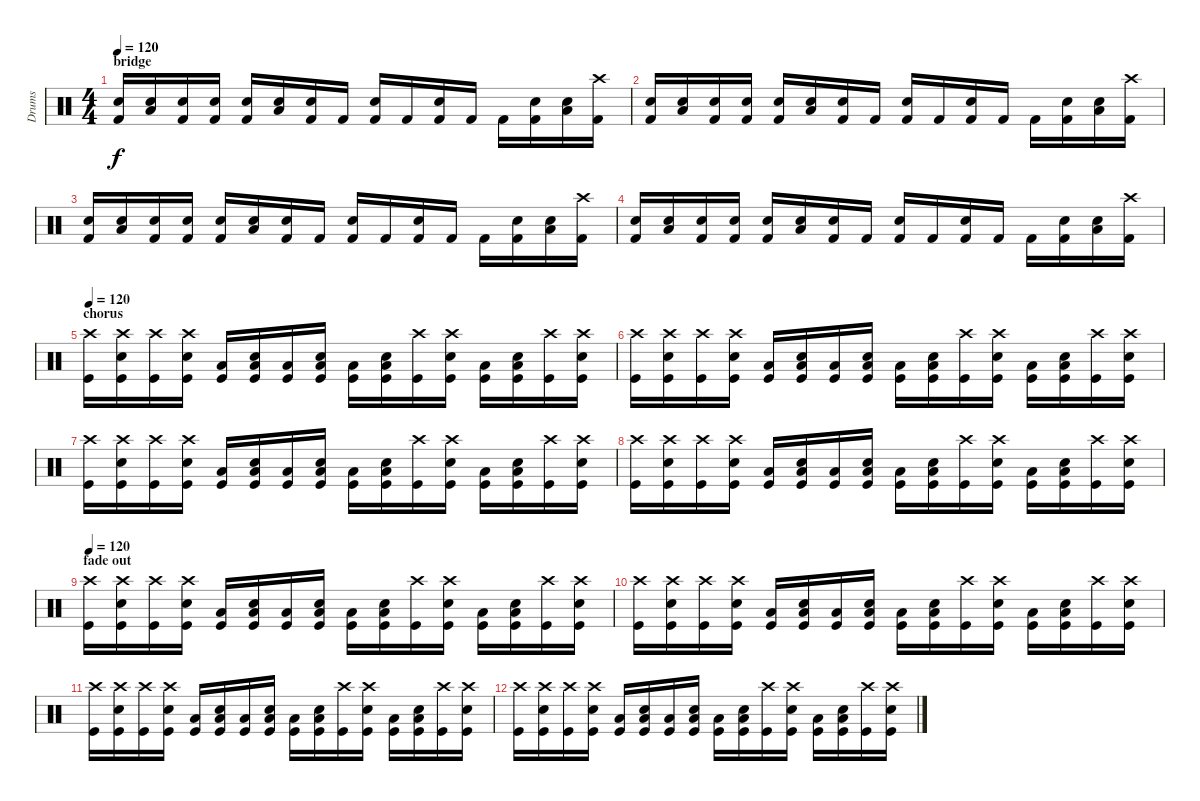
\track ("Drums" "Drums") {instrument percussion}
\staff {score}
\articulation defaults
\ts (4 4)
\section ("" "bridge")
\tempo 120
\clef neutral
\ks c
("Snare (hit) 2" "Kick (hit) 2").16{dy f} ("Snare (hit) 2" "Low Tom (hit)").16 ("Snare (hit) 2" "Kick (hit) 2").16 ("Snare (hit) 2" "Kick (hit) 2").16 ("Snare (hit) 2" "Kick (hit) 2").16 ("Snare (hit) 2" "Low Tom (hit)").16 ("Snare (hit) 2" "Kick (hit) 2").16 "Kick (hit) 2".16 ("Kick (hit) 2" "Snare (hit) 2").16 "Kick (hit) 2".16 ("Kick (hit) 2" "Snare (hit) 2").16 "Kick (hit) 2".16 "Kick (hit) 2".16 ("Kick (hit) 2" "Snare (hit) 2").16 ("Snare (hit) 2" "Low Tom (hit)").16 ("Kick (hit) 2" "Crash high (hit)").16 |
("Snare (hit) 2" "Kick (hit) 2").16 ("Snare (hit) 2" "Low Tom (hit)").16 ("Snare (hit) 2" "Kick (hit) 2").16 ("Snare (hit) 2" "Kick (hit) 2").16 ("Snare (hit) 2" "Kick (hit) 2").16 ("Snare (hit) 2" "Low Tom (hit)").16 ("Snare (hit) 2" "Kick (hit) 2").16 "Kick (hit) 2".16 ("Kick (hit) 2" "Snare (hit) 2").16 "Kick (hit) 2".16 ("Kick (hit) 2" "Snare (hit) 2").16 "Kick (hit) 2".16 "Kick (hit) 2".16 ("Kick (hit) 2" "Snare (hit) 2").16 ("Snare (hit) 2" "Low Tom (hit)").16 ("Kick (hit) 2" "Crash high (hit)").16 |
("Snare (hit) 2" "Kick (hit) 2").16 ("Snare (hit) 2" "Low Tom (hit)").16 ("Snare (hit) 2" "Kick (hit) 2").16 ("Snare (hit) 2" "Kick (hit) 2").16 ("Snare (hit) 2" "Kick (hit) 2").16 ("Snare (hit) 2" "Low Tom (hit)").16 ("Snare (hit) 2" "Kick (hit) 2").16 "Kick (hit) 2".16 ("Kick (hit) 2" "Snare (hit) 2").16 "Kick (hit) 2".16 ("Kick (hit) 2" "Snare (hit) 2").16 "Kick (hit) 2".16 "Kick (hit) 2".16 ("Kick (hit) 2" "Snare (hit) 2").16 ("Snare (hit) 2" "Low Tom (hit)").16 ("Kick (hit) 2" "Crash high (hit)").16 |
("Snare (hit) 2" "Kick (hit) 2").16 ("Snare (hit) 2" "Low Tom (hit)").16 ("Snare (hit) 2" "Kick (hit) 2").16 ("Snare (hit) 2" "Kick (hit) 2").16 ("Snare (hit) 2" "Kick (hit) 2").16 ("Snare (hit) 2" "Low Tom (hit)").16 ("Snare (hit) 2" "Kick (hit) 2").16 "Kick (hit) 2".16 ("Kick (hit) 2" "Snare (hit) 2").16 "Kick (hit) 2".16 ("Kick (hit) 2" "Snare (hit) 2").16 "Kick (hit) 2".16 "Kick (hit) 2".16 ("Kick (hit) 2" "Snare (hit) 2").16 ("Snare (hit) 2" "Low Tom (hit)").16 ("Kick (hit) 2" "Crash high (hit)").16 |
\section ("" "chorus")
\tempo 120
("Kick (hit)" "Crash high (hit)").16 ("Kick (hit)" "Snare (hit) 2" "Crash high (hit)").16 ("Kick (hit)" "Crash high (hit)").16 ("Kick (hit)" "Snare (hit) 2" "Crash high (hit)").16 ("Kick (hit)" "Low Tom (hit)").16 ("Kick (hit)" "Snare (hit) 2" "Low Tom (hit)").16 ("Kick (hit)" "Low Tom (hit)").16 ("Kick (hit)" "Snare (hit) 2" "Low Tom (hit)").16 ("Kick (hit)" "Low Tom (hit)").16 ("Kick (hit)" "Snare (hit) 2" "Low Tom (hit)").16 ("Kick (hit)" "Crash high (hit)").16 ("Kick (hit)" "Snare (hit) 2" "Crash high (hit)").16 ("Kick (hit)" "Low Tom (hit)").16 ("Kick (hit)" "Snare (hit) 2" "Low Tom (hit)").16 ("Kick (hit)" "Crash high (hit)").16 ("Kick (hit)" "Snare (hit) 2" "Crash high (hit)").16 |
("Kick (hit)" "Crash high (hit)").16 ("Kick (hit)" "Snare (hit) 2" "Crash high (hit)").16 ("Kick (hit)" "Crash high (hit)").16 ("Kick (hit)" "Snare (hit) 2" "Crash high (hit)").16 ("Kick (hit)" "Low Tom (hit)").16 ("Kick (hit)" "Snare (hit) 2" "Low Tom (hit)").16 ("Kick (hit)" "Low Tom (hit)").16 ("Kick (hit)" "Snare (hit) 2" "Low Tom (hit)").16 ("Kick (hit)" "Low Tom (hit)").16 ("Kick (hit)" "Snare (hit) 2" "Low Tom (hit)").16 ("Kick (hit)" "Crash high (hit)").16 ("Kick (hit)" "Snare (hit) 2" "Crash high (hit)").16 ("Kick (hit)" "Low Tom (hit)").16 ("Kick (hit)" "Snare (hit) 2" "Low Tom (hit)").16 ("Kick (hit)" "Crash high (hit)").16 ("Kick (hit)" "Snare (hit) 2" "Crash high (hit)").16 |
("Kick (hit)" "Crash high (hit)").16 ("Kick (hit)" "Snare (hit) 2" "Crash high (hit)").16 ("Kick (hit)" "Crash high (hit)").16 ("Kick (hit)" "Snare (hit) 2" "Crash high (hit)").16 ("Kick (hit)" "Low Tom (hit)").16 ("Kick (hit)" "Snare (hit) 2" "Low Tom (hit)").16 ("Kick (hit)" "Low Tom (hit)").16 ("Kick (hit)" "Snare (hit) 2" "Low Tom (hit)").16 ("Kick (hit)" "Low Tom (hit)").16 ("Kick (hit)" "Snare (hit) 2" "Low Tom (hit)").16 ("Kick (hit)" "Crash high (hit)").16 ("Kick (hit)" "Snare (hit) 2" "Crash high (hit)").16 ("Kick (hit)" "Low Tom (hit)").16 ("Kick (hit)" "Snare (hit) 2" "Low Tom (hit)").16 ("Kick (hit)" "Crash high (hit)").16 ("Kick (hit)" "Snare (hit) 2" "Crash high (hit)").16 |
("Kick (hit)" "Crash high (hit)").16 ("Kick (hit)" "Snare (hit) 2" "Crash high (hit)").16 ("Kick (hit)" "Crash high (hit)").16 ("Kick (hit)" "Snare (hit) 2" "Crash high (hit)").16 ("Kick (hit)" "Low Tom (hit)").16 ("Kick (hit)" "Snare (hit) 2" "Low Tom (hit)").16 ("Kick (hit)" "Low Tom (hit)").16 ("Kick (hit)" "Snare (hit) 2" "Low Tom (hit)").16 ("Kick (hit)" "Low Tom (hit)").16 ("Kick (hit)" "Snare (hit) 2" "Low Tom (hit)").16 ("Kick (hit)" "Crash high (hit)").16 ("Kick (hit)" "Snare (hit) 2" "Crash high (hit)").16 ("Kick (hit)" "Low Tom (hit)").16 ("Kick (hit)" "Snare (hit) 2" "Low Tom (hit)").16 ("Kick (hit)" "Crash high (hit)").16 ("Kick (hit)" "Snare (hit) 2" "Crash high (hit)").16 |
\section ("" "fade out")
\tempo 120
("Kick (hit)" "Crash high (hit)").16 ("Kick (hit)" "Snare (hit) 2" "Crash high (hit)").16 ("Kick (hit)" "Crash high (hit)").16 ("Kick (hit)" "Snare (hit) 2" "Crash high (hit)").16 ("Kick (hit)" "Low Tom (hit)").16 ("Kick (hit)" "Snare (hit) 2" "Low Tom (hit)").16 ("Kick (hit)" "Low Tom (hit)").16 ("Kick (hit)" "Snare (hit) 2" "Low Tom (hit)").16 ("Kick (hit)" "Low Tom (hit)").16 ("Kick (hit)" "Snare (hit) 2" "Low Tom (hit)").16 ("Kick (hit)" "Crash high (hit)").16 ("Kick (hit)" "Snare (hit) 2" "Crash high (hit)").16 ("Kick (hit)" "Low Tom (hit)").16 ("Kick (hit)" "Snare (hit) 2" "Low Tom (hit)").16 ("Kick (hit)" "Crash high (hit)").16 ("Kick (hit)" "Snare (hit) 2" "Crash high (hit)").16 |
("Kick (hit)" "Crash high (hit)").16 ("Kick (hit)" "Snare (hit) 2" "Crash high (hit)").16 ("Kick (hit)" "Crash high (hit)").16 ("Kick (hit)" "Snare (hit) 2" "Crash high (hit)").16 ("Kick (hit)" "Low Tom (hit)").16 ("Kick (hit)" "Snare (hit) 2" "Low Tom (hit)").16 ("Kick (hit)" "Low Tom (hit)").16 ("Kick (hit)" "Snare (hit) 2" "Low Tom (hit)").16 ("Kick (hit)" "Low Tom (hit)").16 ("Kick (hit)" "Snare (hit) 2" "Low Tom (hit)").16 ("Kick (hit)" "Crash high (hit)").16 ("Kick (hit)" "Snare (hit) 2" "Crash high (hit)").16 ("Kick (hit)" "Low Tom (hit)").16 ("Kick (hit)" "Snare (hit) 2" "Low Tom (hit)").16 ("Kick (hit)" "Crash high (hit)").16 ("Kick (hit)" "Snare (hit) 2" "Crash high (hit)").16 |
("Kick (hit)" "Crash high (hit)").16 ("Kick (hit)" "Snare (hit) 2" "Crash high (hit)").16 ("Kick (hit)" "Crash high (hit)").16 ("Kick (hit)" "Snare (hit) 2" "Crash high (hit)").16 ("Kick (hit)" "Low Tom (hit)").16 ("Kick (hit)" "Snare (hit) 2" "Low Tom (hit)").16 ("Kick (hit)" "Low Tom (hit)").16 ("Kick (hit)" "Snare (hit) 2" "Low Tom (hit)").16 ("Kick (hit)" "Low Tom (hit)").16 ("Kick (hit)" "Snare (hit) 2" "Low Tom (hit)").16 ("Kick (hit)" "Crash high (hit)").16 ("Kick (hit)" "Snare (hit) 2" "Crash high (hit)").16 ("Kick (hit)" "Low Tom (hit)").16 ("Kick (hit)" "Snare (hit) 2" "Low Tom (hit)").16 ("Kick (hit)" "Crash high (hit)").16 ("Kick (hit)" "Snare (hit) 2" "Crash high (hit)").16 |
("Kick (hit)" "Crash high (hit)").16 ("Kick (hit)" "Snare (hit) 2" "Crash high (hit)").16 ("Kick (hit)" "Crash high (hit)").16 ("Kick (hit)" "Snare (hit) 2" "Crash high (hit)").16 ("Kick (hit)" "Low Tom (hit)").16 ("Kick (hit)" "Snare (hit) 2" "Low Tom (hit)").16 ("Kick (hit)" "Low Tom (hit)").16 ("Kick (hit)" "Snare (hit) 2" "Low Tom (hit)").16 ("Kick (hit)" "Low Tom (hit)").16 ("Kick (hit)" "Snare (hit) 2" "Low Tom (hit)").16 ("Kick (hit)" "Crash high (hit)").16 ("Kick (hit)" "Snare (hit) 2" "Crash high (hit)").16 ("Kick (hit)" "Low Tom (hit)").16 ("Kick (hit)" "Snare (hit) 2" "Low Tom (hit)").16 ("Kick (hit)" "Crash high (hit)").16 ("Kick (hit)" "Snare (hit) 2" "Crash high (hit)").16
